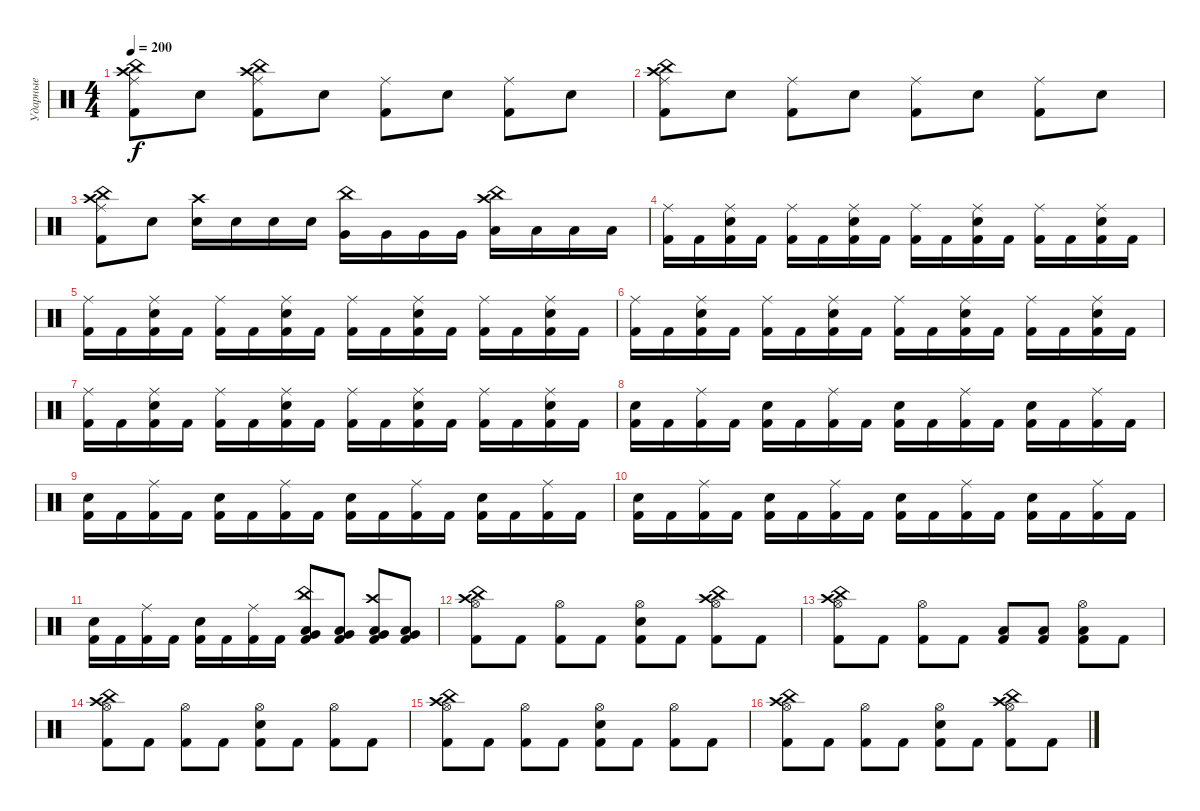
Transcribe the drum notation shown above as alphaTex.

\track ("Ударные" "Ударные") {instrument percussion}
\staff {score}
\articulation defaults
\ts (4 4)
\tempo 200
\clef neutral
\ks c
("Kick (hit) 2" "Crash high (hit)" "China (hit)" "Ride (middle)").8{dy f} "Electric Snare (hit)".8 ("Kick (hit) 2" "China (hit)" "Crash high (hit)" "Ride (middle)").8 "Electric Snare (hit)".8 ("Kick (hit) 2" "Ride (middle)").8 "Electric Snare (hit)".8 ("Kick (hit) 2" "Ride (middle)").8 "Electric Snare (hit)".8 |
("Kick (hit) 2" "Crash high (hit)" "China (hit)" "Ride (middle)").8 "Electric Snare (hit)".8 ("Kick (hit) 2" "Ride (middle)").8 "Electric Snare (hit)".8 ("Kick (hit) 2" "Ride (middle)").8 "Electric Snare (hit)".8 ("Kick (hit) 2" "Ride (middle)").8 "Electric Snare (hit)".8 |
("Kick (hit) 2" "Crash high (hit)" "China (hit)" "Ride (middle)").8 "Electric Snare (hit)".8 ("Snare (hit) 2" "Crash high (hit)").16 "Snare (hit) 2".16 "Snare (hit) 2".16 "Snare (hit) 2".16 ("Very Low Tom (hit)" "China (hit)").16 "Very Low Tom (hit)".16 "Very Low Tom (hit)".16 "Very Low Tom (hit)".16 ("Low Floor Tom (hit)" "China (hit)" "Crash high (hit)").16 "Low Floor Tom (hit)".16 "Low Floor Tom (hit)".16 "Low Floor Tom (hit)".16 |
("Kick (hit) 2" "Ride (middle)").16 "Kick (hit) 2".16 ("Kick (hit) 2" "Electric Snare (hit)" "Ride (middle)").16 "Kick (hit) 2".16 ("Kick (hit) 2" "Ride (middle)").16 "Kick (hit) 2".16 ("Kick (hit) 2" "Electric Snare (hit)" "Ride (middle)").16 "Kick (hit) 2".16 ("Kick (hit) 2" "Ride (middle)").16 "Kick (hit) 2".16 ("Kick (hit) 2" "Electric Snare (hit)" "Ride (middle)").16 "Kick (hit) 2".16 ("Kick (hit) 2" "Ride (middle)").16 "Kick (hit) 2".16 ("Kick (hit) 2" "Electric Snare (hit)" "Ride (middle)").16 "Kick (hit) 2".16 |
("Kick (hit) 2" "Ride (middle)").16 "Kick (hit) 2".16 ("Kick (hit) 2" "Electric Snare (hit)" "Ride (middle)").16 "Kick (hit) 2".16 ("Kick (hit) 2" "Ride (middle)").16 "Kick (hit) 2".16 ("Kick (hit) 2" "Electric Snare (hit)" "Ride (middle)").16 "Kick (hit) 2".16 ("Kick (hit) 2" "Ride (middle)").16 "Kick (hit) 2".16 ("Kick (hit) 2" "Electric Snare (hit)" "Ride (middle)").16 "Kick (hit) 2".16 ("Kick (hit) 2" "Ride (middle)").16 "Kick (hit) 2".16 ("Kick (hit) 2" "Electric Snare (hit)" "Ride (middle)").16 "Kick (hit) 2".16 |
("Kick (hit) 2" "Ride (middle)").16 "Kick (hit) 2".16 ("Kick (hit) 2" "Electric Snare (hit)" "Ride (middle)").16 "Kick (hit) 2".16 ("Kick (hit) 2" "Ride (middle)").16 "Kick (hit) 2".16 ("Kick (hit) 2" "Electric Snare (hit)" "Ride (middle)").16 "Kick (hit) 2".16 ("Kick (hit) 2" "Ride (middle)").16 "Kick (hit) 2".16 ("Kick (hit) 2" "Electric Snare (hit)" "Ride (middle)").16 "Kick (hit) 2".16 ("Kick (hit) 2" "Ride (middle)").16 "Kick (hit) 2".16 ("Kick (hit) 2" "Electric Snare (hit)" "Ride (middle)").16 "Kick (hit) 2".16 |
("Kick (hit) 2" "Ride (middle)").16 "Kick (hit) 2".16 ("Kick (hit) 2" "Electric Snare (hit)" "Ride (middle)").16 "Kick (hit) 2".16 ("Kick (hit) 2" "Ride (middle)").16 "Kick (hit) 2".16 ("Kick (hit) 2" "Electric Snare (hit)" "Ride (middle)").16 "Kick (hit) 2".16 ("Kick (hit) 2" "Ride (middle)").16 "Kick (hit) 2".16 ("Kick (hit) 2" "Electric Snare (hit)" "Ride (middle)").16 "Kick (hit) 2".16 ("Kick (hit) 2" "Ride (middle)").16 "Kick (hit) 2".16 ("Kick (hit) 2" "Electric Snare (hit)" "Ride (middle)").16 "Kick (hit) 2".16 |
("Kick (hit) 2" "Electric Snare (hit)").16 "Kick (hit) 2".16 ("Kick (hit) 2" "Ride (middle)").16 "Kick (hit) 2".16 ("Kick (hit) 2" "Electric Snare (hit)").16 "Kick (hit) 2".16 ("Kick (hit) 2" "Ride (middle)").16 "Kick (hit) 2".16 ("Kick (hit) 2" "Electric Snare (hit)").16 "Kick (hit) 2".16 ("Kick (hit) 2" "Ride (middle)").16 "Kick (hit) 2".16 ("Kick (hit) 2" "Electric Snare (hit)").16 "Kick (hit) 2".16 ("Kick (hit) 2" "Ride (middle)").16 "Kick (hit) 2".16 |
("Kick (hit) 2" "Electric Snare (hit)").16 "Kick (hit) 2".16 ("Kick (hit) 2" "Ride (middle)").16 "Kick (hit) 2".16 ("Kick (hit) 2" "Electric Snare (hit)").16 "Kick (hit) 2".16 ("Kick (hit) 2" "Ride (middle)").16 "Kick (hit) 2".16 ("Kick (hit) 2" "Electric Snare (hit)").16 "Kick (hit) 2".16 ("Kick (hit) 2" "Ride (middle)").16 "Kick (hit) 2".16 ("Kick (hit) 2" "Electric Snare (hit)").16 "Kick (hit) 2".16 ("Kick (hit) 2" "Ride (middle)").16 "Kick (hit) 2".16 |
("Kick (hit) 2" "Electric Snare (hit)").16 "Kick (hit) 2".16 ("Kick (hit) 2" "Ride (middle)").16 "Kick (hit) 2".16 ("Kick (hit) 2" "Electric Snare (hit)").16 "Kick (hit) 2".16 ("Kick (hit) 2" "Ride (middle)").16 "Kick (hit) 2".16 ("Kick (hit) 2" "Electric Snare (hit)").16 "Kick (hit) 2".16 ("Kick (hit) 2" "Ride (middle)").16 "Kick (hit) 2".16 ("Kick (hit) 2" "Electric Snare (hit)").16 "Kick (hit) 2".16 ("Kick (hit) 2" "Ride (middle)").16 "Kick (hit) 2".16 |
("Kick (hit) 2" "Electric Snare (hit)").16 "Kick (hit) 2".16 ("Kick (hit) 2" "Ride (middle)").16 "Kick (hit) 2".16 ("Kick (hit) 2" "Electric Snare (hit)").16 "Kick (hit) 2".16 ("Kick (hit) 2" "Ride (middle)").16 "Kick (hit) 2".16 ("Kick (hit) 2" "Low Floor Tom (hit)" "Very Low Tom (hit)" "China (hit)").8 ("Kick (hit) 2" "Low Floor Tom (hit)" "Very Low Tom (hit)").8 ("Kick (hit) 2" "Low Floor Tom (hit)" "Very Low Tom (hit)" "Crash high (hit)").8 ("Kick (hit) 2" "Low Floor Tom (hit)" "Very Low Tom (hit)").8 |
("Kick (hit) 2" "Hi-Hat (open)" "Crash high (hit)" "China (hit)").8 "Kick (hit) 2".8 ("Kick (hit) 2" "Hi-Hat (open)").8 "Kick (hit) 2".8 ("Kick (hit) 2" "Electric Snare (hit)" "Hi-Hat (open)").8 "Kick (hit) 2".8 ("Kick (hit) 2" "Hi-Hat (open)" "Crash high (hit)" "China (hit)").8 "Kick (hit) 2".8 |
("Kick (hit) 2" "Hi-Hat (open)" "China (hit)" "Crash high (hit)").8 "Kick (hit) 2".8 ("Kick (hit) 2" "Hi-Hat (open)").8 "Kick (hit) 2".8 ("Kick (hit) 2" "Low Floor Tom (hit)").8 ("Kick (hit) 2" "Low Floor Tom (hit)").8 ("Kick (hit) 2" "Low Floor Tom (hit)" "Hi-Hat (open)").8 "Kick (hit) 2".8 |
("Kick (hit) 2" "Hi-Hat (open)" "China (hit)" "Crash high (hit)").8 "Kick (hit) 2".8 ("Kick (hit) 2" "Hi-Hat (open)").8 "Kick (hit) 2".8 ("Kick (hit) 2" "Electric Snare (hit)" "Hi-Hat (open)").8 "Kick (hit) 2".8 ("Kick (hit) 2" "Hi-Hat (open)").8 "Kick (hit) 2".8 |
("Kick (hit) 2" "Hi-Hat (open)" "Crash high (hit)" "China (hit)").8 "Kick (hit) 2".8 ("Kick (hit) 2" "Hi-Hat (open)").8 "Kick (hit) 2".8 ("Kick (hit) 2" "Electric Snare (hit)" "Hi-Hat (open)").8 "Kick (hit) 2".8 ("Kick (hit) 2" "Hi-Hat (open)").8 "Kick (hit) 2".8 |
("Kick (hit) 2" "Hi-Hat (open)" "Crash high (hit)" "China (hit)").8 "Kick (hit) 2".8 ("Kick (hit) 2" "Hi-Hat (open)").8 "Kick (hit) 2".8 ("Kick (hit) 2" "Electric Snare (hit)" "Hi-Hat (open)").8 "Kick (hit) 2".8 ("Kick (hit) 2" "Hi-Hat (open)" "Crash high (hit)" "China (hit)").8 "Kick (hit) 2".8
